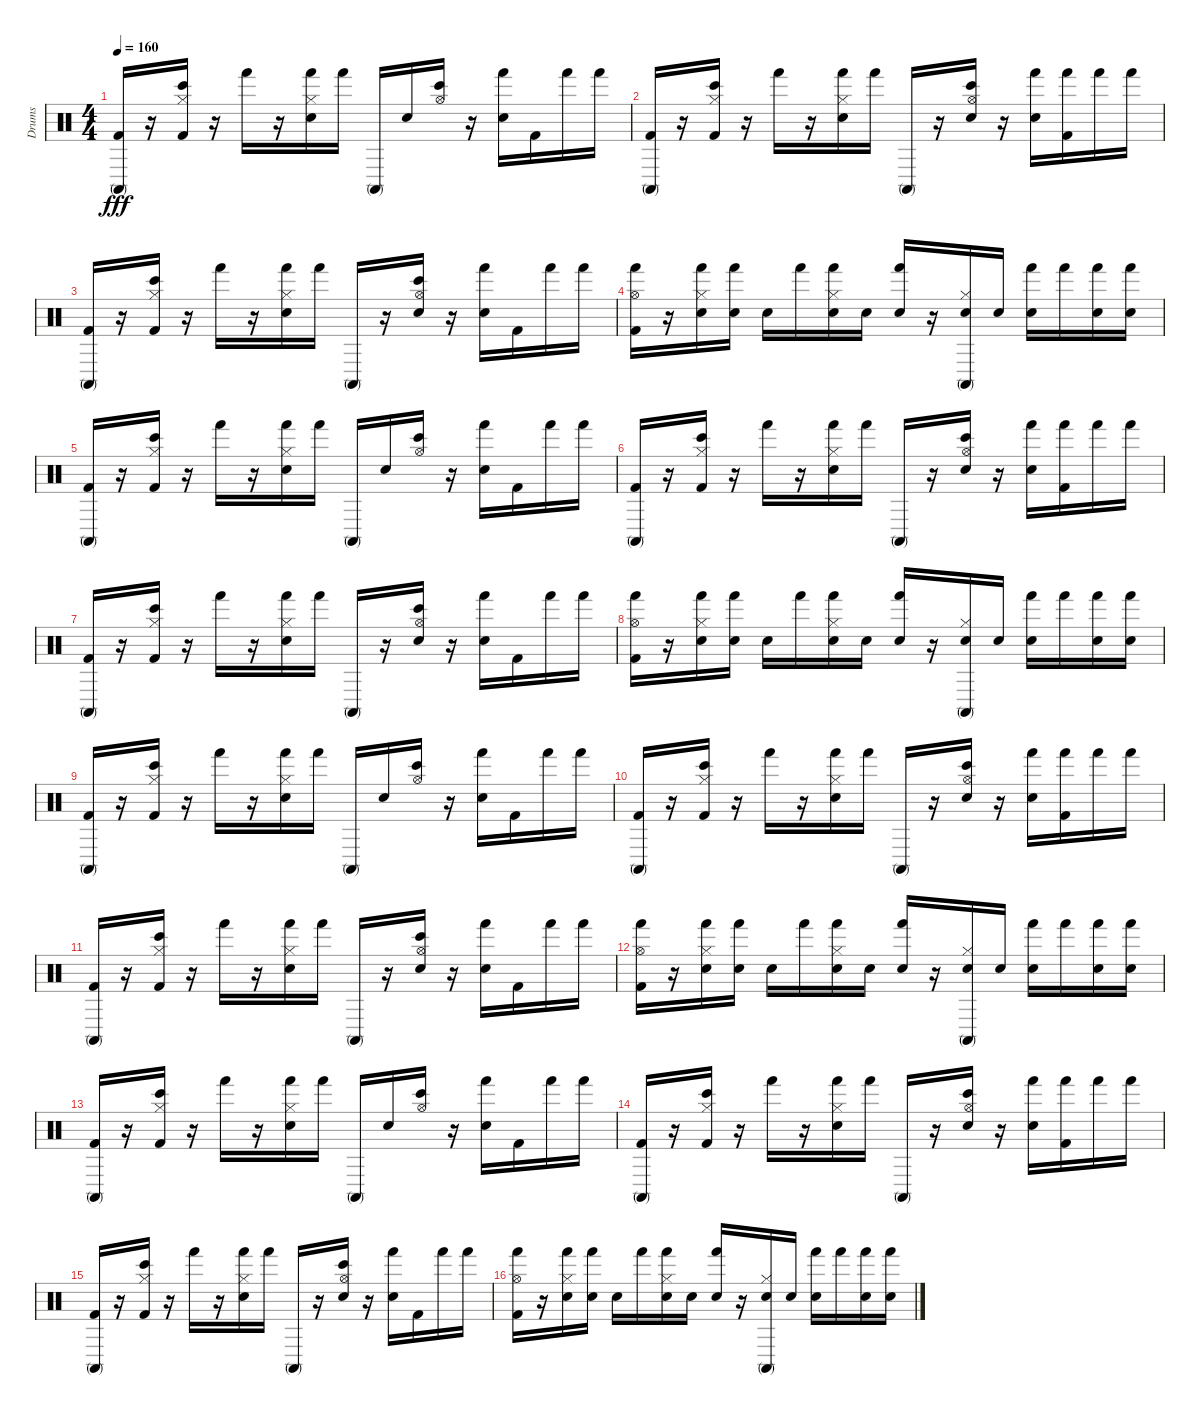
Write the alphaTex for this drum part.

\track ("Drums" "Drums") {instrument percussion}
\staff {score}
\articulation defaults
\ts (4 4)
\tempo 160
\clef neutral
\ks c
("Conga high (mute)" "Kick (hit) 2").16{dy fff} r.16 ("Hi-Hat (closed)" "Kick (hit) 2" "Bongo High (hit)").16 r.16 "Hand (hit)".16 r.16 ("Electric Snare (hit)" "Hi-Hat (closed)" "Hand (hit)").16 "Hand (hit)".16 "Conga high (mute)".16 "Electric Snare (hit)".16 ("Hi-Hat (open)" "Bongo High (hit)").16 r.16 ("Electric Snare (hit)" "Hand (hit)").16 "Kick (hit) 2".16 "Hand (hit)".16 "Hand (hit)".16 |
("Conga high (mute)" "Kick (hit) 2").16 r.16 ("Hi-Hat (closed)" "Bongo High (hit)" "Kick (hit) 2").16 r.16 "Hand (hit)".16 r.16 ("Hi-Hat (closed)" "Electric Snare (hit)" "Hand (hit)").16 "Hand (hit)".16 "Conga high (mute)".16 r.16 ("Electric Snare (hit)" "Bongo High (hit)" "Hi-Hat (open)").16 r.16 ("Electric Snare (hit)" "Hand (hit)").16 ("Hand (hit)" "Kick (hit) 2").16 "Hand (hit)".16 "Hand (hit)".16 |
("Kick (hit) 2" "Conga high (mute)").16 r.16 ("Kick (hit) 2" "Bongo High (hit)" "Hi-Hat (closed)").16 r.16 "Hand (hit)".16 r.16 ("Hi-Hat (closed)" "Electric Snare (hit)" "Hand (hit)").16 "Hand (hit)".16 "Conga high (mute)".16 r.16 ("Hi-Hat (open)" "Bongo High (hit)" "Electric Snare (hit)").16 r.16 ("Hand (hit)" "Electric Snare (hit)").16 "Kick (hit) 2".16 "Hand (hit)".16 "Hand (hit)".16 |
("Kick (hit) 2" "Hi-Hat (open)" "Hand (hit)").16 r.16 ("Electric Snare (hit)" "Hand (hit)" "Hi-Hat (closed)").16 ("Electric Snare (hit)" "Hand (hit)").16 "Electric Snare (hit)".16 "Hand (hit)".16 ("Hand (hit)" "Electric Snare (hit)" "Hi-Hat (closed)").16 "Electric Snare (hit)".16 ("Electric Snare (hit)" "Hand (hit)").16 r.16 ("Conga high (mute)" "Hi-Hat (closed)" "Electric Snare (hit)").16 "Electric Snare (hit)".16 ("Hand (hit)" "Electric Snare (hit)").16 "Hand (hit)".16 ("Electric Snare (hit)" "Hand (hit)").16 ("Hand (hit)" "Electric Snare (hit)").16 |
("Conga high (mute)" "Kick (hit) 2").16 r.16 ("Hi-Hat (closed)" "Kick (hit) 2" "Bongo High (hit)").16 r.16 "Hand (hit)".16 r.16 ("Hi-Hat (closed)" "Electric Snare (hit)" "Hand (hit)").16 "Hand (hit)".16 "Conga high (mute)".16 "Electric Snare (hit)".16 ("Hi-Hat (open)" "Bongo High (hit)").16 r.16 ("Hand (hit)" "Electric Snare (hit)").16 "Kick (hit) 2".16 "Hand (hit)".16 "Hand (hit)".16 |
("Kick (hit) 2" "Conga high (mute)").16 r.16 ("Kick (hit) 2" "Hi-Hat (closed)" "Bongo High (hit)").16 r.16 "Hand (hit)".16 r.16 ("Electric Snare (hit)" "Hi-Hat (closed)" "Hand (hit)").16 "Hand (hit)".16 "Conga high (mute)".16 r.16 ("Hi-Hat (open)" "Electric Snare (hit)" "Bongo High (hit)").16 r.16 ("Electric Snare (hit)" "Hand (hit)").16 ("Hand (hit)" "Kick (hit) 2").16 "Hand (hit)".16 "Hand (hit)".16 |
("Conga high (mute)" "Kick (hit) 2").16 r.16 ("Kick (hit) 2" "Bongo High (hit)" "Hi-Hat (closed)").16 r.16 "Hand (hit)".16 r.16 ("Hand (hit)" "Hi-Hat (closed)" "Electric Snare (hit)").16 "Hand (hit)".16 "Conga high (mute)".16 r.16 ("Hi-Hat (open)" "Bongo High (hit)" "Electric Snare (hit)").16 r.16 ("Electric Snare (hit)" "Hand (hit)").16 "Kick (hit) 2".16 "Hand (hit)".16 "Hand (hit)".16 |
("Kick (hit) 2" "Hi-Hat (open)" "Hand (hit)").16 r.16 ("Hand (hit)" "Electric Snare (hit)" "Hi-Hat (closed)").16 ("Electric Snare (hit)" "Hand (hit)").16 "Electric Snare (hit)".16 "Hand (hit)".16 ("Hand (hit)" "Hi-Hat (closed)" "Electric Snare (hit)").16 "Electric Snare (hit)".16 ("Electric Snare (hit)" "Hand (hit)").16 r.16 ("Conga high (mute)" "Hi-Hat (closed)" "Electric Snare (hit)").16 "Electric Snare (hit)".16 ("Hand (hit)" "Electric Snare (hit)").16 "Hand (hit)".16 ("Hand (hit)" "Electric Snare (hit)").16 ("Hand (hit)" "Electric Snare (hit)").16 |
("Conga high (mute)" "Kick (hit) 2").16 r.16 ("Hi-Hat (closed)" "Bongo High (hit)" "Kick (hit) 2").16 r.16 "Hand (hit)".16 r.16 ("Electric Snare (hit)" "Hand (hit)" "Hi-Hat (closed)").16 "Hand (hit)".16 "Conga high (mute)".16 "Electric Snare (hit)".16 ("Bongo High (hit)" "Hi-Hat (open)").16 r.16 ("Electric Snare (hit)" "Hand (hit)").16 "Kick (hit) 2".16 "Hand (hit)".16 "Hand (hit)".16 |
("Kick (hit) 2" "Conga high (mute)").16 r.16 ("Kick (hit) 2" "Hi-Hat (closed)" "Bongo High (hit)").16 r.16 "Hand (hit)".16 r.16 ("Electric Snare (hit)" "Hand (hit)" "Hi-Hat (closed)").16 "Hand (hit)".16 "Conga high (mute)".16 r.16 ("Electric Snare (hit)" "Hi-Hat (open)" "Bongo High (hit)").16 r.16 ("Hand (hit)" "Electric Snare (hit)").16 ("Hand (hit)" "Kick (hit) 2").16 "Hand (hit)".16 "Hand (hit)".16 |
("Kick (hit) 2" "Conga high (mute)").16 r.16 ("Bongo High (hit)" "Kick (hit) 2" "Hi-Hat (closed)").16 r.16 "Hand (hit)".16 r.16 ("Electric Snare (hit)" "Hand (hit)" "Hi-Hat (closed)").16 "Hand (hit)".16 "Conga high (mute)".16 r.16 ("Electric Snare (hit)" "Hi-Hat (open)" "Bongo High (hit)").16 r.16 ("Hand (hit)" "Electric Snare (hit)").16 "Kick (hit) 2".16 "Hand (hit)".16 "Hand (hit)".16 |
("Hand (hit)" "Kick (hit) 2" "Hi-Hat (open)").16 r.16 ("Hand (hit)" "Electric Snare (hit)" "Hi-Hat (closed)").16 ("Hand (hit)" "Electric Snare (hit)").16 "Electric Snare (hit)".16 "Hand (hit)".16 ("Hi-Hat (closed)" "Hand (hit)" "Electric Snare (hit)").16 "Electric Snare (hit)".16 ("Electric Snare (hit)" "Hand (hit)").16 r.16 ("Electric Snare (hit)" "Conga high (mute)" "Hi-Hat (closed)").16 "Electric Snare (hit)".16 ("Hand (hit)" "Electric Snare (hit)").16 "Hand (hit)".16 ("Electric Snare (hit)" "Hand (hit)").16 ("Hand (hit)" "Electric Snare (hit)").16 |
("Conga high (mute)" "Kick (hit) 2").16 r.16 ("Kick (hit) 2" "Bongo High (hit)" "Hi-Hat (closed)").16 r.16 "Hand (hit)".16 r.16 ("Electric Snare (hit)" "Hand (hit)" "Hi-Hat (closed)").16 "Hand (hit)".16 "Conga high (mute)".16 "Electric Snare (hit)".16 ("Hi-Hat (open)" "Bongo High (hit)").16 r.16 ("Hand (hit)" "Electric Snare (hit)").16 "Kick (hit) 2".16 "Hand (hit)".16 "Hand (hit)".16 |
("Kick (hit) 2" "Conga high (mute)").16 r.16 ("Kick (hit) 2" "Bongo High (hit)" "Hi-Hat (closed)").16 r.16 "Hand (hit)".16 r.16 ("Hi-Hat (closed)" "Hand (hit)" "Electric Snare (hit)").16 "Hand (hit)".16 "Conga high (mute)".16 r.16 ("Electric Snare (hit)" "Hi-Hat (open)" "Bongo High (hit)").16 r.16 ("Electric Snare (hit)" "Hand (hit)").16 ("Kick (hit) 2" "Hand (hit)").16 "Hand (hit)".16 "Hand (hit)".16 |
("Conga high (mute)" "Kick (hit) 2").16 r.16 ("Hi-Hat (closed)" "Bongo High (hit)" "Kick (hit) 2").16 r.16 "Hand (hit)".16 r.16 ("Hand (hit)" "Hi-Hat (closed)" "Electric Snare (hit)").16 "Hand (hit)".16 "Conga high (mute)".16 r.16 ("Electric Snare (hit)" "Bongo High (hit)" "Hi-Hat (open)").16 r.16 ("Hand (hit)" "Electric Snare (hit)").16 "Kick (hit) 2".16 "Hand (hit)".16 "Hand (hit)".16 |
("Hand (hit)" "Hi-Hat (open)" "Kick (hit) 2").16 r.16 ("Hand (hit)" "Hi-Hat (closed)" "Electric Snare (hit)").16 ("Electric Snare (hit)" "Hand (hit)").16 "Electric Snare (hit)".16 "Hand (hit)".16 ("Electric Snare (hit)" "Hi-Hat (closed)" "Hand (hit)").16 "Electric Snare (hit)".16 ("Hand (hit)" "Electric Snare (hit)").16 r.16 ("Electric Snare (hit)" "Conga high (mute)" "Hi-Hat (closed)").16 "Electric Snare (hit)".16 ("Hand (hit)" "Electric Snare (hit)").16 "Hand (hit)".16 ("Electric Snare (hit)" "Hand (hit)").16 ("Electric Snare (hit)" "Hand (hit)").16
